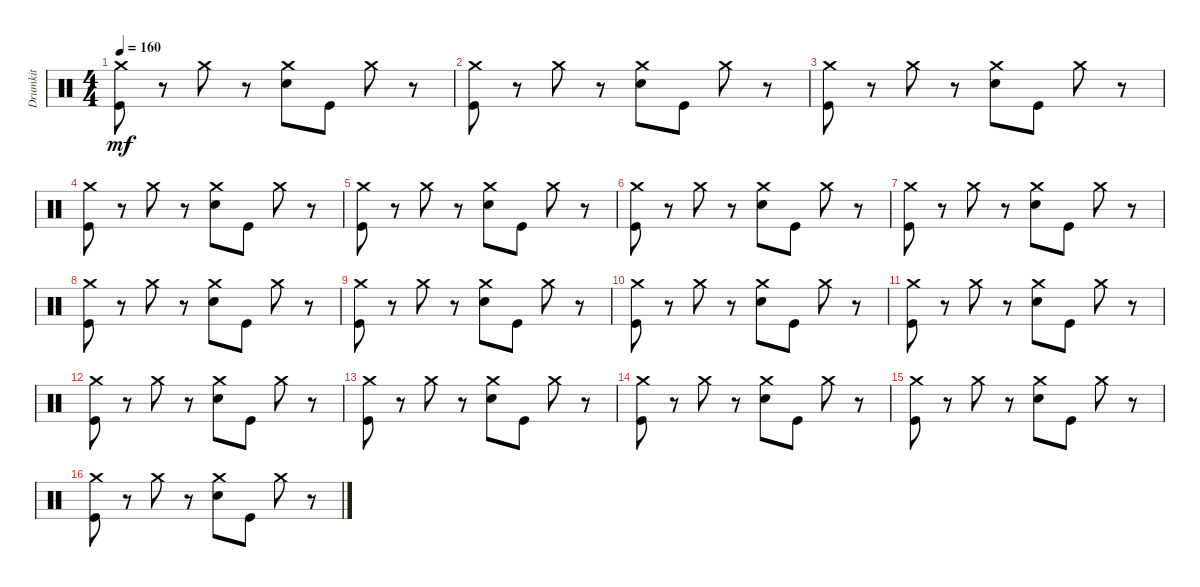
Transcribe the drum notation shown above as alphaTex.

\track ("Drumkit" "Drumkit") {instrument percussion}
\staff {score}
\articulation defaults
\ts (4 4)
\tempo 160
\clef neutral
\ks c
("Kick (hit)" "Crash medium (hit)").8{dy mf} r.8 "Crash medium (hit)".8 r.8 ("Snare (hit) 2" "Crash medium (hit)").8 "Kick (hit)".8 "Crash medium (hit)".8 r.8 |
("Kick (hit)" "Crash medium (hit)").8 r.8 "Crash medium (hit)".8 r.8 ("Snare (hit) 2" "Crash medium (hit)").8 "Kick (hit)".8 "Crash medium (hit)".8 r.8 |
("Kick (hit)" "Crash medium (hit)").8 r.8 "Crash medium (hit)".8 r.8 ("Snare (hit) 2" "Crash medium (hit)").8 "Kick (hit)".8 "Crash medium (hit)".8 r.8 |
("Kick (hit)" "Crash medium (hit)").8 r.8 "Crash medium (hit)".8 r.8 ("Snare (hit) 2" "Crash medium (hit)").8 "Kick (hit)".8 "Crash medium (hit)".8 r.8 |
("Kick (hit)" "Crash medium (hit)").8 r.8 "Crash medium (hit)".8 r.8 ("Snare (hit) 2" "Crash medium (hit)").8 "Kick (hit)".8 "Crash medium (hit)".8 r.8 |
("Kick (hit)" "Crash medium (hit)").8 r.8 "Crash medium (hit)".8 r.8 ("Snare (hit) 2" "Crash medium (hit)").8 "Kick (hit)".8 "Crash medium (hit)".8 r.8 |
("Kick (hit)" "Crash medium (hit)").8 r.8 "Crash medium (hit)".8 r.8 ("Snare (hit) 2" "Crash medium (hit)").8 "Kick (hit)".8 "Crash medium (hit)".8 r.8 |
("Kick (hit)" "Crash medium (hit)").8 r.8 "Crash medium (hit)".8 r.8 ("Snare (hit) 2" "Crash medium (hit)").8 "Kick (hit)".8 "Crash medium (hit)".8 r.8 |
("Kick (hit)" "Crash medium (hit)").8 r.8 "Crash medium (hit)".8 r.8 ("Snare (hit) 2" "Crash medium (hit)").8 "Kick (hit)".8 "Crash medium (hit)".8 r.8 |
("Kick (hit)" "Crash medium (hit)").8 r.8 "Crash medium (hit)".8 r.8 ("Snare (hit) 2" "Crash medium (hit)").8 "Kick (hit)".8 "Crash medium (hit)".8 r.8 |
("Kick (hit)" "Crash medium (hit)").8 r.8 "Crash medium (hit)".8 r.8 ("Snare (hit) 2" "Crash medium (hit)").8 "Kick (hit)".8 "Crash medium (hit)".8 r.8 |
("Kick (hit)" "Crash medium (hit)").8 r.8 "Crash medium (hit)".8 r.8 ("Snare (hit) 2" "Crash medium (hit)").8 "Kick (hit)".8 "Crash medium (hit)".8 r.8 |
("Kick (hit)" "Crash medium (hit)").8 r.8 "Crash medium (hit)".8 r.8 ("Snare (hit) 2" "Crash medium (hit)").8 "Kick (hit)".8 "Crash medium (hit)".8 r.8 |
("Kick (hit)" "Crash medium (hit)").8 r.8 "Crash medium (hit)".8 r.8 ("Snare (hit) 2" "Crash medium (hit)").8 "Kick (hit)".8 "Crash medium (hit)".8 r.8 |
("Kick (hit)" "Crash medium (hit)").8 r.8 "Crash medium (hit)".8 r.8 ("Snare (hit) 2" "Crash medium (hit)").8 "Kick (hit)".8 "Crash medium (hit)".8 r.8 |
("Kick (hit)" "Crash medium (hit)").8 r.8 "Crash medium (hit)".8 r.8 ("Snare (hit) 2" "Crash medium (hit)").8 "Kick (hit)".8 "Crash medium (hit)".8 r.8
